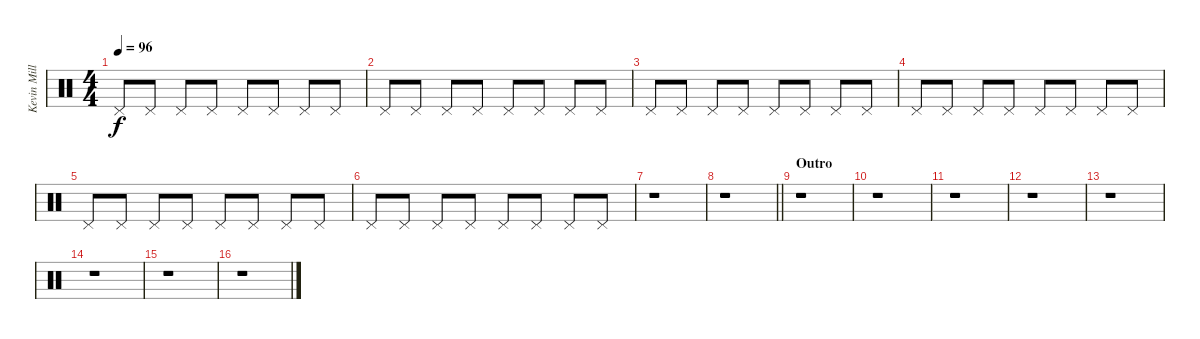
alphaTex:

\track ("Kevin Miller (Drums)" "Kevin Mill") {instrument percussion}
\staff {score}
\articulation defaults
\ts (4 4)
\tempo 96
\clef neutral
\ks c "Pedal Hi-Hat (hit)".8{dy f} "Pedal Hi-Hat (hit)".8 "Pedal Hi-Hat (hit)".8 "Pedal Hi-Hat (hit)".8 "Pedal Hi-Hat (hit)".8 "Pedal Hi-Hat (hit)".8 "Pedal Hi-Hat (hit)".8 "Pedal Hi-Hat (hit)".8
|
"Pedal Hi-Hat (hit)".8 "Pedal Hi-Hat (hit)".8 "Pedal Hi-Hat (hit)".8 "Pedal Hi-Hat (hit)".8 "Pedal Hi-Hat (hit)".8 "Pedal Hi-Hat (hit)".8 "Pedal Hi-Hat (hit)".8 "Pedal Hi-Hat (hit)".8 |
"Pedal Hi-Hat (hit)".8 "Pedal Hi-Hat (hit)".8 "Pedal Hi-Hat (hit)".8 "Pedal Hi-Hat (hit)".8 "Pedal Hi-Hat (hit)".8 "Pedal Hi-Hat (hit)".8 "Pedal Hi-Hat (hit)".8 "Pedal Hi-Hat (hit)".8 |
"Pedal Hi-Hat (hit)".8 "Pedal Hi-Hat (hit)".8 "Pedal Hi-Hat (hit)".8 "Pedal Hi-Hat (hit)".8 "Pedal Hi-Hat (hit)".8 "Pedal Hi-Hat (hit)".8 "Pedal Hi-Hat (hit)".8 "Pedal Hi-Hat (hit)".8 |
"Pedal Hi-Hat (hit)".8 "Pedal Hi-Hat (hit)".8 "Pedal Hi-Hat (hit)".8 "Pedal Hi-Hat (hit)".8 "Pedal Hi-Hat (hit)".8 "Pedal Hi-Hat (hit)".8 "Pedal Hi-Hat (hit)".8 "Pedal Hi-Hat (hit)".8 |
"Pedal Hi-Hat (hit)".8 "Pedal Hi-Hat (hit)".8 "Pedal Hi-Hat (hit)".8 "Pedal Hi-Hat (hit)".8 "Pedal Hi-Hat (hit)".8 "Pedal Hi-Hat (hit)".8 "Pedal Hi-Hat (hit)".8 "Pedal Hi-Hat (hit)".8 |
r.1 |
\barLineRight lightlight
r.1 |
\section ("" "Outro")
r.1 |
r.1 |
r.1 |
r.1 |
r.1 |
r.1 |
r.1 |
r.1
